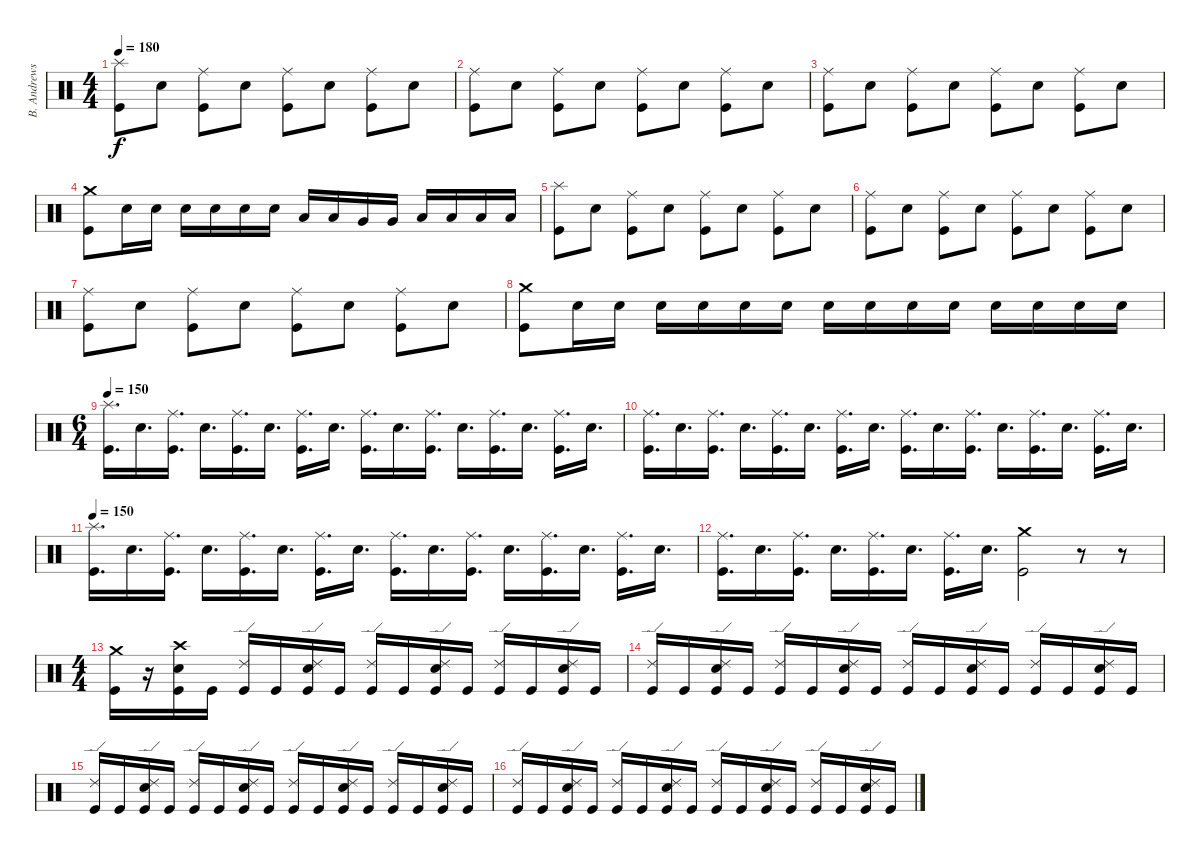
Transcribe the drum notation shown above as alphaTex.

\track ("B. Andrews" "B. Andrews") {instrument percussion}
\staff {score}
\articulation defaults
\ts (4 4)
\tempo 180
\clef neutral
\ks c
("Splash (hit)" "Kick (hit)").8{dy f} "Electric Snare (hit)".8 ("Ride (middle)" "Kick (hit)").8 "Electric Snare (hit)".8 ("Ride (middle)" "Kick (hit)").8 "Electric Snare (hit)".8 ("Ride (middle)" "Kick (hit)").8 "Electric Snare (hit)".8 |
("Ride (middle)" "Kick (hit)").8 "Electric Snare (hit)".8 ("Ride (middle)" "Kick (hit)").8 "Electric Snare (hit)".8 ("Ride (middle)" "Kick (hit)").8 "Electric Snare (hit)".8 ("Ride (middle)" "Kick (hit)").8 "Electric Snare (hit)".8 |
("Ride (middle)" "Kick (hit)").8 "Electric Snare (hit)".8 ("Ride (middle)" "Kick (hit)").8 "Electric Snare (hit)".8 ("Ride (middle)" "Kick (hit)").8 "Electric Snare (hit)".8 ("Ride (middle)" "Kick (hit)").8 "Electric Snare (hit)".8 |
("Crash medium (hit)" "Kick (hit)").8 "Electric Snare (hit)".16 "Electric Snare (hit)".16 "Electric Snare (hit)".16 "Electric Snare (hit)".16 "Electric Snare (hit)".16 "Electric Snare (hit)".16 "Low Tom (hit)".16 "Low Tom (hit)".16 "Very Low Tom (hit)".16 "Very Low Tom (hit)".16 "Low Floor Tom (hit)".16 "Low Floor Tom (hit)".16 "Low Floor Tom (hit)".16 "Low Floor Tom (hit)".16 |
("Splash (hit)" "Kick (hit)").8 "Electric Snare (hit)".8 ("Ride (middle)" "Kick (hit)").8 "Electric Snare (hit)".8 ("Ride (middle)" "Kick (hit)").8 "Electric Snare (hit)".8 ("Ride (middle)" "Kick (hit)").8 "Electric Snare (hit)".8 |
("Ride (middle)" "Kick (hit)").8 "Electric Snare (hit)".8 ("Ride (middle)" "Kick (hit)").8 "Electric Snare (hit)".8 ("Ride (middle)" "Kick (hit)").8 "Electric Snare (hit)".8 ("Ride (middle)" "Kick (hit)").8 "Electric Snare (hit)".8 |
("Ride (middle)" "Kick (hit)").8 "Electric Snare (hit)".8 ("Ride (middle)" "Kick (hit)").8 "Electric Snare (hit)".8 ("Ride (middle)" "Kick (hit)").8 "Electric Snare (hit)".8 ("Ride (middle)" "Kick (hit)").8 "Electric Snare (hit)".8 |
("Crash medium (hit)" "Kick (hit)").8 "Electric Snare (hit)".16 "Electric Snare (hit)".16 "Electric Snare (hit)".16 "Electric Snare (hit)".16 "Electric Snare (hit)".16 "Electric Snare (hit)".16 "Electric Snare (hit)".16 "Electric Snare (hit)".16 "Electric Snare (hit)".16 "Electric Snare (hit)".16 "Electric Snare (hit)".16 "Electric Snare (hit)".16 "Electric Snare (hit)".16 "Electric Snare (hit)".16 |
\ts (6 4)
\tempo 180
\tempo 150
("Splash (hit)" "Kick (hit)").16{d} "Electric Snare (hit)".16{d} ("Ride (middle)" "Kick (hit)").16{d} "Electric Snare (hit)".16{d} ("Ride (middle)" "Kick (hit)").16{d} "Electric Snare (hit)".16{d} ("Ride (middle)" "Kick (hit)").16{d} "Electric Snare (hit)".16{d} ("Ride (middle)" "Kick (hit)").16{d} "Electric Snare (hit)".16{d} ("Ride (middle)" "Kick (hit)").16{d} "Electric Snare (hit)".16{d} ("Ride (middle)" "Kick (hit)").16{d} "Electric Snare (hit)".16{d} ("Ride (middle)" "Kick (hit)").16{d} "Electric Snare (hit)".16{d} |
("Ride (middle)" "Kick (hit)").16{d} "Electric Snare (hit)".16{d} ("Ride (middle)" "Kick (hit)").16{d} "Electric Snare (hit)".16{d} ("Ride (middle)" "Kick (hit)").16{d} "Electric Snare (hit)".16{d} ("Ride (middle)" "Kick (hit)").16{d} "Electric Snare (hit)".16{d} ("Ride (middle)" "Kick (hit)").16{d} "Electric Snare (hit)".16{d} ("Ride (middle)" "Kick (hit)").16{d} "Electric Snare (hit)".16{d} ("Ride (middle)" "Kick (hit)").16{d} "Electric Snare (hit)".16{d} ("Ride (middle)" "Kick (hit)").16{d} "Electric Snare (hit)".16{d} |
\tempo 150
("Splash (hit)" "Kick (hit)").16{d} "Electric Snare (hit)".16{d} ("Ride (middle)" "Kick (hit)").16{d} "Electric Snare (hit)".16{d} ("Ride (middle)" "Kick (hit)").16{d} "Electric Snare (hit)".16{d} ("Ride (middle)" "Kick (hit)").16{d} "Electric Snare (hit)".16{d} ("Ride (middle)" "Kick (hit)").16{d} "Electric Snare (hit)".16{d} ("Ride (middle)" "Kick (hit)").16{d} "Electric Snare (hit)".16{d} ("Ride (middle)" "Kick (hit)").16{d} "Electric Snare (hit)".16{d} ("Ride (middle)" "Kick (hit)").16{d} "Electric Snare (hit)".16{d} |
("Ride (middle)" "Kick (hit)").16{d} "Electric Snare (hit)".16{d} ("Ride (middle)" "Kick (hit)").16{d} "Electric Snare (hit)".16{d} ("Ride (middle)" "Kick (hit)").16{d} "Electric Snare (hit)".16{d} ("Ride (middle)" "Kick (hit)").16{d} "Electric Snare (hit)".16{d} ("Crash medium (hit)" "Kick (hit)").2 r.8 r.8 |
\ts (4 4)
("Crash medium (hit)" "Kick (hit)").16 r.16 ("Crash high (hit)" "Electric Snare (hit)" "Kick (hit)").16 "Kick (hit)".16 ("Ride (edge) 2" "Kick (hit)").16 "Kick (hit)".16 ("Ride (edge) 2" "Electric Snare (hit)" "Kick (hit)").16 "Kick (hit)".16 ("Ride (edge) 2" "Kick (hit)").16 "Kick (hit)".16 ("Ride (edge) 2" "Electric Snare (hit)" "Kick (hit)").16 "Kick (hit)".16 ("Ride (edge) 2" "Kick (hit)").16 "Kick (hit)".16 ("Ride (edge) 2" "Electric Snare (hit)" "Kick (hit)").16 "Kick (hit)".16 |
("Ride (edge) 2" "Kick (hit)").16 "Kick (hit)".16 ("Ride (edge) 2" "Electric Snare (hit)" "Kick (hit)").16 "Kick (hit)".16 ("Ride (edge) 2" "Kick (hit)").16 "Kick (hit)".16 ("Ride (edge) 2" "Electric Snare (hit)" "Kick (hit)").16 "Kick (hit)".16 ("Ride (edge) 2" "Kick (hit)").16 "Kick (hit)".16 ("Ride (edge) 2" "Electric Snare (hit)" "Kick (hit)").16 "Kick (hit)".16 ("Ride (edge) 2" "Kick (hit)").16 "Kick (hit)".16 ("Ride (edge) 2" "Electric Snare (hit)" "Kick (hit)").16 "Kick (hit)".16 |
("Ride (edge) 2" "Kick (hit)").16 "Kick (hit)".16 ("Ride (edge) 2" "Electric Snare (hit)" "Kick (hit)").16 "Kick (hit)".16 ("Ride (edge) 2" "Kick (hit)").16 "Kick (hit)".16 ("Ride (edge) 2" "Electric Snare (hit)" "Kick (hit)").16 "Kick (hit)".16 ("Ride (edge) 2" "Kick (hit)").16 "Kick (hit)".16 ("Ride (edge) 2" "Electric Snare (hit)" "Kick (hit)").16 "Kick (hit)".16 ("Ride (edge) 2" "Kick (hit)").16 "Kick (hit)".16 ("Ride (edge) 2" "Electric Snare (hit)" "Kick (hit)").16 "Kick (hit)".16 |
("Ride (edge) 2" "Kick (hit)").16 "Kick (hit)".16 ("Ride (edge) 2" "Electric Snare (hit)" "Kick (hit)").16 "Kick (hit)".16 ("Ride (edge) 2" "Kick (hit)").16 "Kick (hit)".16 ("Ride (edge) 2" "Electric Snare (hit)" "Kick (hit)").16 "Kick (hit)".16 ("Ride (edge) 2" "Kick (hit)").16 "Kick (hit)".16 ("Ride (edge) 2" "Electric Snare (hit)" "Kick (hit)").16 "Kick (hit)".16 ("Ride (edge) 2" "Kick (hit)").16 "Kick (hit)".16 ("Ride (edge) 2" "Electric Snare (hit)" "Kick (hit)").16 "Kick (hit)".16
